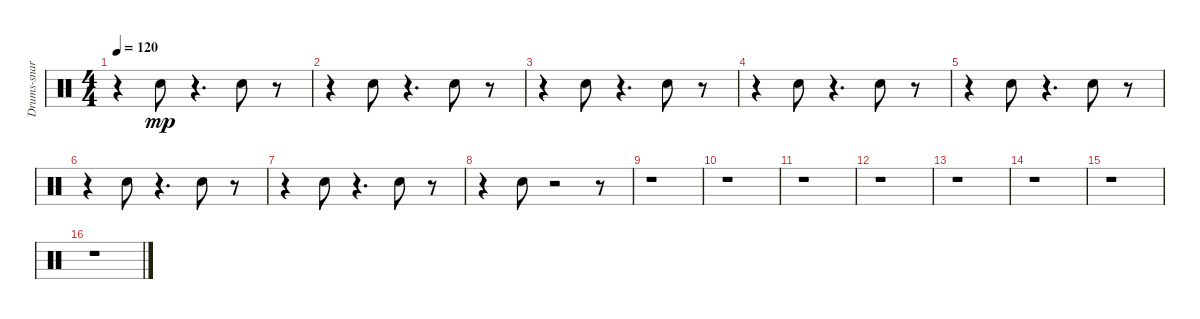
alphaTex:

\track ("Drums-snare drum 1" "Drums-snar") {instrument percussion}
\staff {score}
\articulation defaults
\ts (4 4)
\tempo 120
\clef neutral
\ks c
r.4{dy mp} "Snare (hit) 2".8 r.4{d} "Snare (hit) 2".8 r.8 |
r.4 "Snare (hit) 2".8 r.4{d} "Snare (hit) 2".8 r.8 |
r.4 "Snare (hit) 2".8 r.4{d} "Snare (hit) 2".8 r.8 |
r.4 "Snare (hit) 2".8 r.4{d} "Snare (hit) 2".8 r.8 |
r.4 "Snare (hit) 2".8 r.4{d} "Snare (hit) 2".8 r.8 |
r.4 "Snare (hit) 2".8 r.4{d} "Snare (hit) 2".8 r.8 |
r.4 "Snare (hit) 2".8 r.4{d} "Snare (hit) 2".8 r.8 |
r.4 "Snare (hit) 2".8 r.2 r.8 |
r.1 |
r.1 |
r.1 |
r.1 |
r.1 |
r.1 |
r.1 |
r.1
